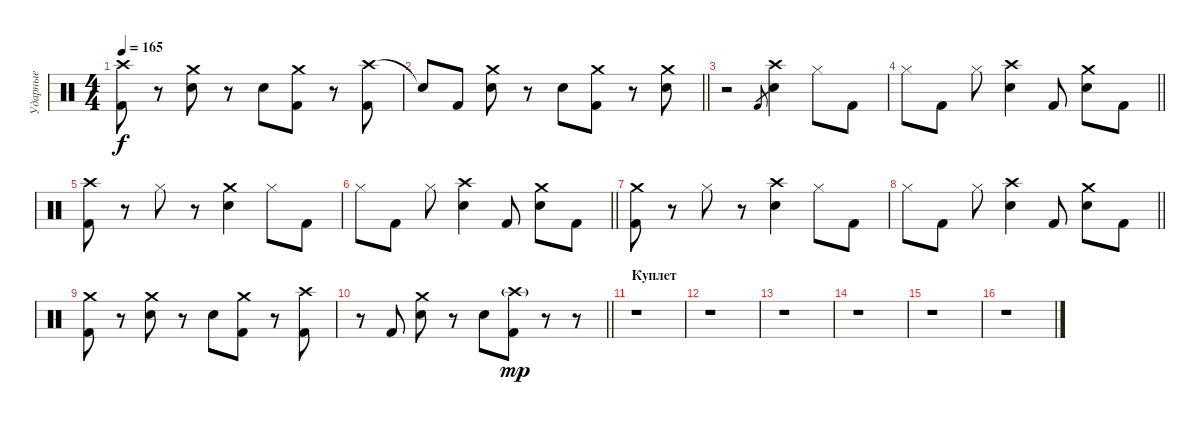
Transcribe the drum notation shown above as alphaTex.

\track ("Ударные" "Ударные") {instrument percussion}
\staff {score}
\articulation defaults
\ts (4 4)
\tempo 165
\clef neutral
\ks c
("Crash high (hit)" "Kick (hit) 2").8{dy f} r.8 ("Crash medium (hit)" "Snare (hit) 2").8 r.8 "Snare (hit) 2".8 ("Crash medium (hit)" "Kick (hit) 2").8 r.8 ("Crash high (hit)" "Kick (hit) 2").8 |
\barLineRight lightlight "Snare (hit)"{t}.8 "Kick (hit) 2".8
("Crash medium (hit)" "Snare (hit) 2").8 r.8 "Snare (hit) 2".8 ("Crash medium (hit)" "Kick (hit) 2").8 r.8 ("Crash medium (hit)" "Snare (hit) 2").8 |
r.2 "Kick (hit) 2".8{gr} ("Crash high (hit)" "Snare (hit) 2").4 "Hi-Hat (closed)".8 "Kick (hit) 2".8 |
\barLineRight lightlight "Hi-Hat (closed)".8 "Kick (hit) 2".8 "Hi-Hat (closed)".8
("Crash high (hit)" "Snare (hit) 2").4 "Kick (hit) 2".8 ("Crash medium (hit)" "Snare (hit) 2").8 "Kick (hit) 2".8 |
("Crash high (hit)" "Kick (hit) 2").8 r.8 "Hi-Hat (closed)".8 r.8 ("Crash medium (hit)" "Snare (hit) 2").4 "Hi-Hat (closed)".8 "Kick (hit) 2".8 |
\barLineRight lightlight "Hi-Hat (closed)".8 "Kick (hit) 2".8 "Hi-Hat (closed)".8
("Crash high (hit)" "Snare (hit) 2").4 "Kick (hit) 2".8 ("Crash medium (hit)" "Snare (hit) 2").8 "Kick (hit) 2".8 |
("Crash medium (hit)" "Kick (hit) 2").8 r.8 "Hi-Hat (closed)".8 r.8 ("Crash high (hit)" "Snare (hit) 2").4 "Hi-Hat (closed)".8 "Kick (hit) 2".8 |
\barLineRight lightlight "Hi-Hat (closed)".8 "Kick (hit) 2".8 "Hi-Hat (closed)".8
("Crash high (hit)" "Snare (hit) 2").4 "Kick (hit) 2".8 ("Crash medium (hit)" "Snare (hit) 2").8 "Kick (hit) 2".8 |
("Crash medium (hit)" "Kick (hit) 2").8 r.8 ("Crash medium (hit)" "Snare (hit) 2").8 r.8 "Snare (hit) 2".8 ("Crash medium (hit)" "Kick (hit) 2").8 r.8 ("Crash high (hit)" "Kick (hit) 2").8 |
\barLineRight lightlight
r.8 "Kick (hit) 2".8 ("Crash medium (hit)" "Snare (hit) 2").8 r.8 "Snare (hit) 2".8 ("Crash high (hit)"{g} "Kick (hit) 2").8{dy mp} r.8 r.8 |
\section ("" "Куплет")
r.1 |
r.1 |
r.1 |
r.1 |
r.1 |
r.1
